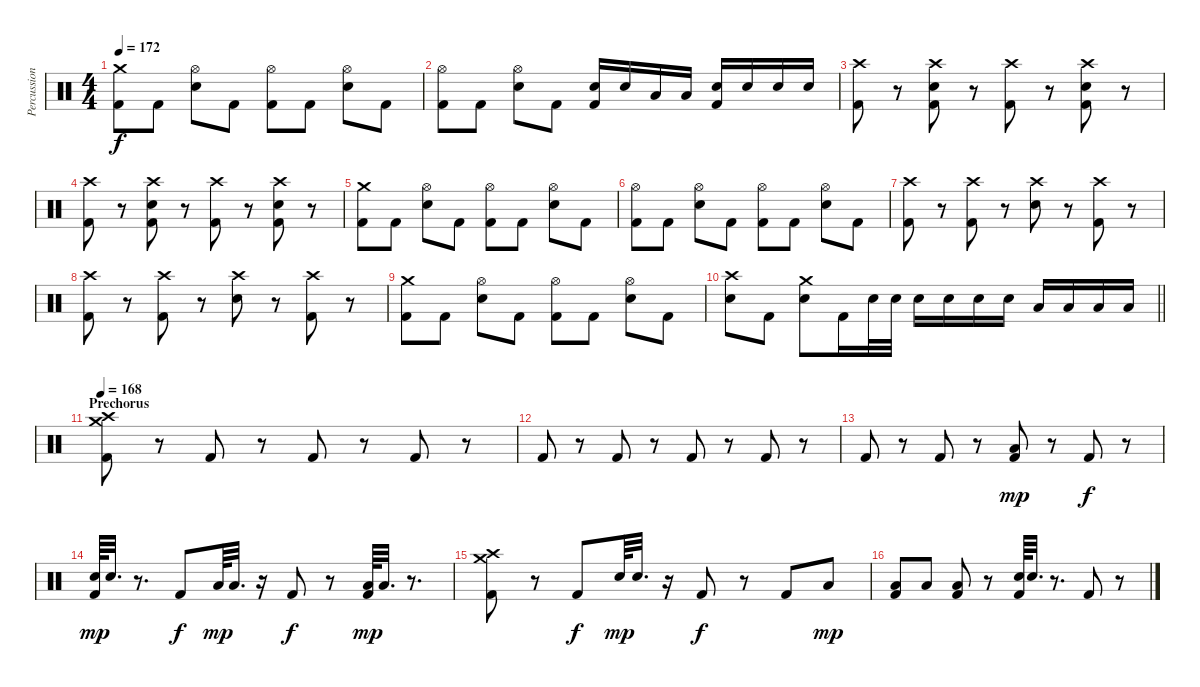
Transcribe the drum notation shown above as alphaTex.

\track ("Percussion" "Percussion") {instrument percussion}
\staff {score}
\articulation defaults
\ts (4 4)
\tempo 172
\clef neutral
\ks c
("Crash medium (hit)" "Kick (hit) 2").8{dy f} "Kick (hit) 2".8 ("Hi-Hat (open)" "Snare (hit) 2").8 "Kick (hit) 2".8 ("Hi-Hat (open)" "Kick (hit) 2").8 "Kick (hit) 2".8 ("Hi-Hat (open)" "Snare (hit) 2").8 "Kick (hit) 2".8 |
("Hi-Hat (open)" "Kick (hit) 2").8 "Kick (hit) 2".8 ("Hi-Hat (open)" "Snare (hit) 2").8 "Kick (hit) 2".8 ("Snare (hit) 2" "Kick (hit) 2").16 "Snare (hit) 2".16 "Low Tom (hit)".16 "Low Floor Tom (hit)".16 ("Snare (hit) 2" "Kick (hit) 2").16 "Snare (hit) 2".16 "Snare (hit) 2".16 "Snare (hit) 2".16 |
("Crash high (hit)" "Kick (hit) 2").8 r.8 ("Crash high (hit)" "Snare (hit) 2" "Kick (hit) 2").8 r.8 ("Crash high (hit)" "Kick (hit) 2").8 r.8 ("Crash high (hit)" "Snare (hit) 2" "Kick (hit) 2").8 r.8 |
("Crash high (hit)" "Kick (hit) 2").8 r.8 ("Crash high (hit)" "Snare (hit) 2" "Kick (hit) 2").8 r.8 ("Crash high (hit)" "Kick (hit) 2").8 r.8 ("Crash high (hit)" "Snare (hit) 2" "Kick (hit) 2").8 r.8 |
("Crash medium (hit)" "Kick (hit) 2").8 "Kick (hit) 2".8 ("Hi-Hat (open)" "Snare (hit) 2").8 "Kick (hit) 2".8 ("Hi-Hat (open)" "Kick (hit) 2").8 "Kick (hit) 2".8 ("Hi-Hat (open)" "Snare (hit) 2").8 "Kick (hit) 2".8 |
("Hi-Hat (open)" "Kick (hit) 2").8 "Kick (hit) 2".8 ("Hi-Hat (open)" "Snare (hit) 2").8 "Kick (hit) 2".8 ("Hi-Hat (open)" "Kick (hit) 2").8 "Kick (hit) 2".8 ("Hi-Hat (open)" "Snare (hit) 2").8 "Kick (hit) 2".8 |
("Crash high (hit)" "Kick (hit) 2").8 r.8 ("Crash high (hit)" "Kick (hit) 2").8 r.8 ("Crash high (hit)" "Snare (hit) 2").8 r.8 ("Crash high (hit)" "Kick (hit) 2").8 r.8 |
("Crash high (hit)" "Kick (hit) 2").8 r.8 ("Crash high (hit)" "Kick (hit) 2").8 r.8 ("Crash high (hit)" "Snare (hit) 2").8 r.8 ("Crash high (hit)" "Kick (hit) 2").8 r.8 |
("Crash medium (hit)" "Kick (hit) 2").8 "Kick (hit) 2".8 ("Hi-Hat (open)" "Snare (hit) 2").8 "Kick (hit) 2".8 ("Hi-Hat (open)" "Kick (hit) 2").8 "Kick (hit) 2".8 ("Hi-Hat (open)" "Snare (hit) 2").8 "Kick (hit) 2".8 |
\barLineRight lightlight
("Crash high (hit)" "Snare (hit) 2").8 "Kick (hit) 2".8 ("Crash medium (hit)" "Snare (hit) 2").8 "Kick (hit) 2".16 "Snare (hit) 2".32 "Snare (hit) 2".32 "Snare (hit) 2".16 "Snare (hit) 2".16 "Snare (hit) 2".16 "Snare (hit) 2".16 "Low Tom (hit)".16 "Low Tom (hit)".16 "Low Floor Tom (hit)".16 "Low Floor Tom (hit)".16 |
\section ("" "Prechorus")
\tempo 168
("Crash high (hit)" "Crash medium (hit)" "Kick (hit) 2").8 r.8 "Kick (hit) 2".8 r.8 "Kick (hit) 2".8 r.8 "Kick (hit) 2".8 r.8 |
"Kick (hit) 2".8 r.8 "Kick (hit) 2".8 r.8 "Kick (hit) 2".8 r.8 "Kick (hit) 2".8 r.8 |
"Kick (hit) 2".8 r.8 "Kick (hit) 2".8 r.8 ("Low Floor Tom (hit)" "Kick (hit) 2").8{dy mp} r.8 "Kick (hit) 2".8{dy f} r.8 |
("Snare (hit) 2" "Kick (hit) 2").64{dy mp} "Snare (hit) 2".32{d} r.8{d} "Kick (hit) 2".8{dy f} "Low Tom (hit)".64{dy mp} "Low Tom (hit)".32{d} r.16 "Kick (hit) 2".8{dy f} r.8 ("Low Floor Tom (hit)" "Kick (hit) 2").64{dy mp} "Low Floor Tom (hit)".32{d} r.8{d} |
("Crash high (hit)" "Crash medium (hit)" "Kick (hit) 2").8 r.8 "Kick (hit) 2".8{dy f} "Snare (hit) 2".64{dy mp} "Snare (hit) 2".32{d} r.16 "Kick (hit) 2".8{dy f} r.8 "Kick (hit) 2".8 "Low Floor Tom (hit)".8{dy mp} |
("Low Tom (hit)" "Kick (hit) 2").8 "Low Floor Tom (hit)".8 ("Low Floor Tom (hit)" "Kick (hit) 2").8 r.8 ("Snare (hit) 2" "Kick (hit) 2").64 "Snare (hit) 2".32{d} r.8{d} "Kick (hit) 2".8 r.8
